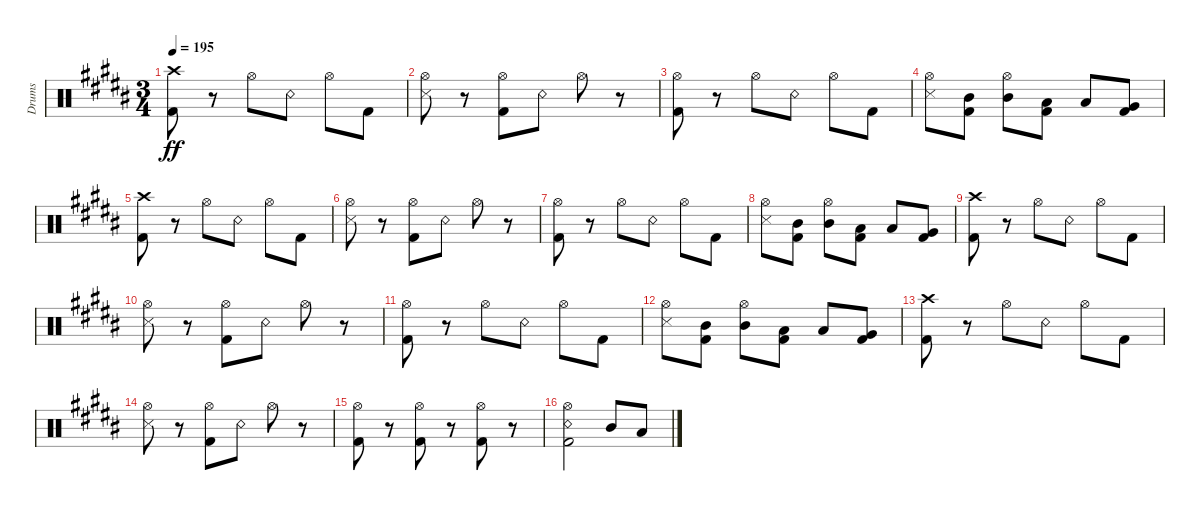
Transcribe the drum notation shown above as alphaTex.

\bracketExtendMode groupsimilarinstruments
\otherSystemsTrackNameOrientation horizontal
\track ("Drumkit" "Drums") {instrument percussion}
\staff {score}
\articulation defaults
\ts (3 4)
\tempo 195
\clef neutral
\ks b
("Kick (hit) 2"{acc bb} "Crash high (hit)"{acc bb}).8{dy ff beam Down} r.8{beam Down} "Hi-Hat (open)"{acc bb}.8{beam Down} "Snare (rim shot)"{acc bb}.8{beam Down} "Hi-Hat (open)"{acc bb}.8{beam Down} "Kick (hit) 2"{acc bb}.8{beam Down} |
("Snare (side stick) 3"{acc bb} "Hi-Hat (open)"{acc bb}).8{beam Down} r.8{beam Down} ("Kick (hit) 2"{acc bb} "Hi-Hat (open)"{acc bb}).8{beam Down} "Snare (rim shot)"{acc bb}.8{beam Down} "Hi-Hat (open)"{acc bb}.8{beam Down} r.8{beam Down} |
("Kick (hit) 2"{acc bb} "Hi-Hat (open)"{acc bb}).8{beam Down} r.8{beam Down} "Hi-Hat (open)"{acc bb}.8{beam Down} "Snare (rim shot)"{acc bb}.8{beam Down} "Hi-Hat (open)"{acc bb}.8{beam Down} "Kick (hit) 2"{acc bb}.8{beam Down} |
("Snare (side stick) 3"{acc bb} "Hi-Hat (open)"{acc bb}).8{beam Down} ("Kick (hit) 2"{acc bb} "Mid Tom (hit)"{acc bb}).8{beam Down} ("Hi-Hat (open)"{acc bb} "Mid Tom (hit)"{acc bb}).8{beam Down} ("Low Tom (hit)"{acc bb} "Kick (hit) 2"{acc bb}).8{beam Down} "Low Tom (hit)"{acc bb}.8{beam Up} ("Very Low Tom (hit)"{acc bb} "Kick (hit) 2"{acc bb}).8{beam Up} |
("Kick (hit) 2"{acc bb} "Crash high (hit)"{acc bb}).8{beam Down} r.8{beam Down} "Hi-Hat (open)"{acc bb}.8{beam Down} "Snare (rim shot)"{acc bb}.8{beam Down} "Hi-Hat (open)"{acc bb}.8{beam Down} "Kick (hit) 2"{acc bb}.8{beam Down} |
("Snare (side stick) 3"{acc bb} "Hi-Hat (open)"{acc bb}).8{beam Down} r.8{beam Down} ("Kick (hit) 2"{acc bb} "Hi-Hat (open)"{acc bb}).8{beam Down} "Snare (rim shot)"{acc bb}.8{beam Down} "Hi-Hat (open)"{acc bb}.8{beam Down} r.8{beam Down} |
("Kick (hit) 2"{acc bb} "Hi-Hat (open)"{acc bb}).8{beam Down} r.8{beam Down} "Hi-Hat (open)"{acc bb}.8{beam Down} "Snare (rim shot)"{acc bb}.8{beam Down} "Hi-Hat (open)"{acc bb}.8{beam Down} "Kick (hit) 2"{acc bb}.8{beam Down} |
("Snare (side stick) 3"{acc bb} "Hi-Hat (open)"{acc bb}).8{beam Down} ("Kick (hit) 2"{acc bb} "Mid Tom (hit)"{acc bb}).8{beam Down} ("Hi-Hat (open)"{acc bb} "Mid Tom (hit)"{acc bb}).8{beam Down} ("Low Tom (hit)"{acc bb} "Kick (hit) 2"{acc bb}).8{beam Down} "Low Tom (hit)"{acc bb}.8{beam Up} ("Very Low Tom (hit)"{acc bb} "Kick (hit) 2"{acc bb}).8{beam Up} |
("Kick (hit) 2"{acc bb} "Crash high (hit)"{acc bb}).8{beam Down} r.8{beam Down} "Hi-Hat (open)"{acc bb}.8{beam Down} "Snare (rim shot)"{acc bb}.8{beam Down} "Hi-Hat (open)"{acc bb}.8{beam Down} "Kick (hit) 2"{acc bb}.8{beam Down} |
("Snare (side stick) 3"{acc bb} "Hi-Hat (open)"{acc bb}).8{beam Down} r.8{beam Down} ("Kick (hit) 2"{acc bb} "Hi-Hat (open)"{acc bb}).8{beam Down} "Snare (rim shot)"{acc bb}.8{beam Down} "Hi-Hat (open)"{acc bb}.8{beam Down} r.8{beam Down} |
("Kick (hit) 2"{acc bb} "Hi-Hat (open)"{acc bb}).8{beam Down} r.8{beam Down} "Hi-Hat (open)"{acc bb}.8{beam Down} "Snare (rim shot)"{acc bb}.8{beam Down} "Hi-Hat (open)"{acc bb}.8{beam Down} "Kick (hit) 2"{acc bb}.8{beam Down} |
("Snare (side stick) 3"{acc bb} "Hi-Hat (open)"{acc bb}).8{beam Down} ("Kick (hit) 2"{acc bb} "Mid Tom (hit)"{acc bb}).8{beam Down} ("Hi-Hat (open)"{acc bb} "Mid Tom (hit)"{acc bb}).8{beam Down} ("Low Tom (hit)"{acc bb} "Kick (hit) 2"{acc bb}).8{beam Down} "Low Tom (hit)"{acc bb}.8{beam Up} ("Very Low Tom (hit)"{acc bb} "Kick (hit) 2"{acc bb}).8{beam Up} |
("Kick (hit) 2"{acc bb} "Crash high (hit)"{acc bb}).8{beam Down} r.8{beam Down} "Hi-Hat (open)"{acc bb}.8{beam Down} "Snare (rim shot)"{acc bb}.8{beam Down} "Hi-Hat (open)"{acc bb}.8{beam Down} "Kick (hit) 2"{acc bb}.8{beam Down} |
("Snare (side stick) 3"{acc bb} "Hi-Hat (open)"{acc bb}).8{beam Down} r.8{beam Down} ("Kick (hit) 2"{acc bb} "Hi-Hat (open)"{acc bb}).8{beam Down} "Snare (rim shot)"{acc bb}.8{beam Down} "Hi-Hat (open)"{acc bb}.8{beam Down} r.8{beam Down} |
("Kick (hit) 2"{acc bb} "Hi-Hat (open)"{acc bb}).8{beam Down} r.8{beam Down} ("Hi-Hat (open)"{acc bb} "Kick (hit) 2"{acc bb}).8{beam Down} r.8{beam Down} ("Hi-Hat (open)"{acc bb} "Kick (hit) 2"{acc bb}).8{beam Down} r.8{beam Down} |
("Snare (rim shot)"{acc bb} "Kick (hit) 2"{acc bb} "Hi-Hat (open)"{acc bb}).2{beam Down} "Mid Tom (hit)"{acc bb}.8{beam Up} "Low Tom (hit)"{acc bb}.8{beam Up}
